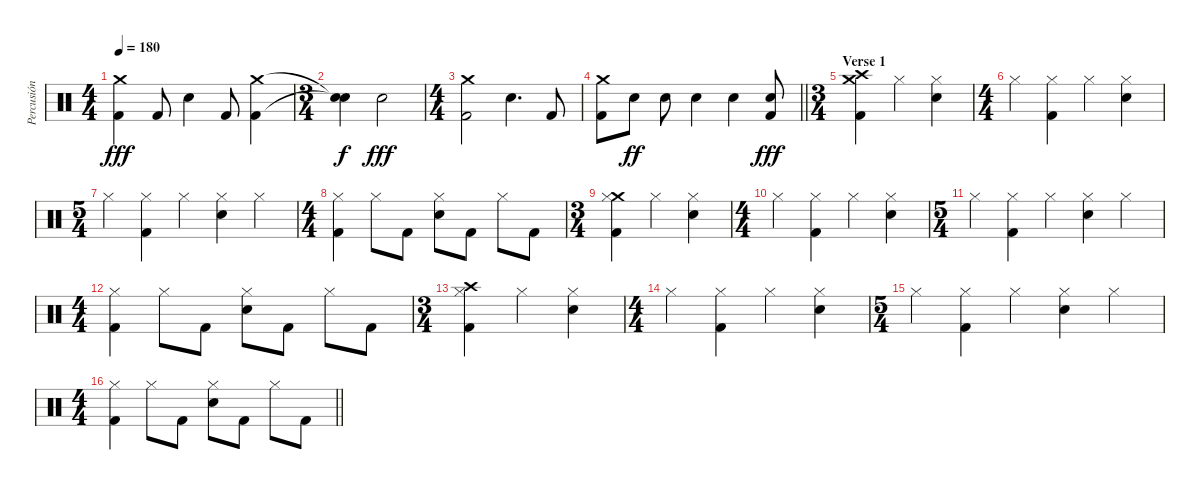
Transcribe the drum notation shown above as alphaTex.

\track ("Percusión" "Percusión") {instrument percussion}
\staff {score}
\articulation defaults
\ts (4 4)
\tempo 180
\clef neutral
\ks c
("Crash medium (hit)" "Kick (hit) 2").4{dy fff} "Kick (hit) 2".8 "Electric Snare (hit)".4 "Kick (hit) 2".8 ("Crash medium (hit)" "Kick (hit) 2").4 |
\ts (3 4)
("Snare (hit)"{t} "Snare (hit)"{t}).4{dy f} "Electric Snare (hit)".2{dy fff} |
\ts (4 4)
("Crash medium (hit)" "Kick (hit) 2").2 "Electric Snare (hit)".4{d} "Kick (hit) 2".8 |
\barLineRight lightlight
("Crash medium (hit)" "Kick (hit) 2").8 "Electric Snare (hit)".8{dy ff} "Electric Snare (hit)".8 "Electric Snare (hit)".4 "Electric Snare (hit)".4 ("Electric Snare (hit)" "Kick (hit) 2").8{dy fff} |
\ts (3 4)
\section ("" "Verse 1")
("Crash medium (hit)" "Crash high (hit)" "Kick (hit) 2").4 "Hi-Hat (closed)".4 ("Hi-Hat (closed)" "Electric Snare (hit)").4 |
\ts (4 4)
"Hi-Hat (closed)".4 ("Hi-Hat (closed)" "Kick (hit) 2").4 "Hi-Hat (closed)".4 ("Hi-Hat (closed)" "Electric Snare (hit)").4 |
\ts (5 4)
"Hi-Hat (closed)".4 ("Hi-Hat (closed)" "Kick (hit) 2").4 "Hi-Hat (closed)".4 ("Hi-Hat (closed)" "Electric Snare (hit)").4 "Hi-Hat (closed)".4 |
\ts (4 4)
("Hi-Hat (closed)" "Kick (hit) 2").4 "Hi-Hat (closed)".8 "Kick (hit) 2".8 ("Hi-Hat (closed)" "Electric Snare (hit)").8 "Kick (hit) 2".8 "Hi-Hat (closed)".8 "Kick (hit) 2".8 |
\ts (3 4)
("Crash medium (hit)" "Hi-Hat (closed)" "Kick (hit) 2").4 "Hi-Hat (closed)".4 ("Hi-Hat (closed)" "Electric Snare (hit)").4 |
\ts (4 4)
"Hi-Hat (closed)".4 ("Hi-Hat (closed)" "Kick (hit) 2").4 "Hi-Hat (closed)".4 ("Hi-Hat (closed)" "Electric Snare (hit)").4 |
\ts (5 4)
"Hi-Hat (closed)".4 ("Hi-Hat (closed)" "Kick (hit) 2").4 "Hi-Hat (closed)".4 ("Hi-Hat (closed)" "Electric Snare (hit)").4 "Hi-Hat (closed)".4 |
\ts (4 4)
("Hi-Hat (closed)" "Kick (hit) 2").4 "Hi-Hat (closed)".8 "Kick (hit) 2".8 ("Hi-Hat (closed)" "Electric Snare (hit)").8 "Kick (hit) 2".8 "Hi-Hat (closed)".8 "Kick (hit) 2".8 |
\ts (3 4)
("Crash high (hit)" "Hi-Hat (closed)" "Kick (hit) 2").4 "Hi-Hat (closed)".4 ("Hi-Hat (closed)" "Electric Snare (hit)").4 |
\ts (4 4)
"Hi-Hat (closed)".4 ("Hi-Hat (closed)" "Kick (hit) 2").4 "Hi-Hat (closed)".4 ("Hi-Hat (closed)" "Electric Snare (hit)").4 |
\ts (5 4)
"Hi-Hat (closed)".4 ("Hi-Hat (closed)" "Kick (hit) 2").4 "Hi-Hat (closed)".4 ("Hi-Hat (closed)" "Electric Snare (hit)").4 "Hi-Hat (closed)".4 |
\ts (4 4)
\barLineRight lightlight
("Hi-Hat (closed)" "Kick (hit) 2").4 "Hi-Hat (closed)".8 "Kick (hit) 2".8 ("Hi-Hat (closed)" "Electric Snare (hit)").8 "Kick (hit) 2".8 "Hi-Hat (closed)".8 "Kick (hit) 2".8
